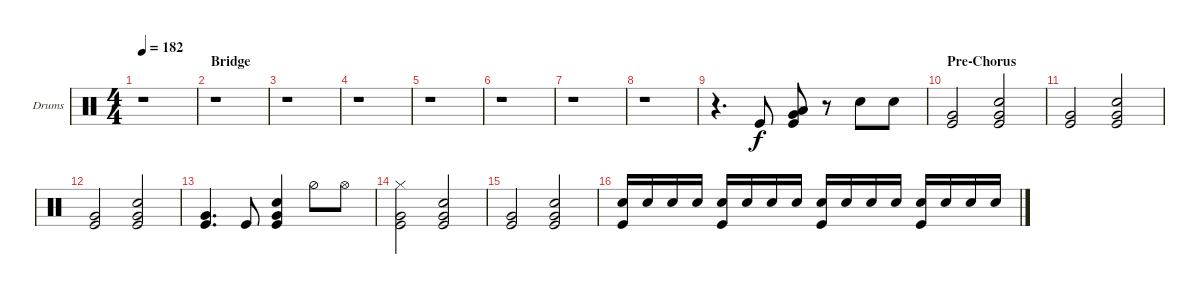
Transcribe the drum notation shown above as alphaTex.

\defaultSystemsLayout 4
\bracketExtendMode groupsimilarinstruments
\firstSystemTrackNameOrientation horizontal
\otherSystemsTrackNameOrientation horizontal
\track ("Drumkit" "Drums") {instrument percussion}
\staff {score}
\articulation defaults
\ts (4 4)
\tempo 182
\clef neutral
\ks c
r.1{dy f} |
\section ("" "Bridge")
r.1 |
r.1 |
r.1 |
r.1 |
r.1 |
r.1 |
r.1 |
r.4{d} "Kick (hit)".8 ("Low Tom (hit)" "Very Low Tom (hit)" "Kick (hit)").8 r.8 "Snare (hit) 2".8 "Snare (hit) 2".8 |
\section ("" "Pre-Chorus")
("Kick (hit)" "Very Low Tom (hit)").2 ("Snare (hit) 2" "Very Low Tom (hit)" "Kick (hit)").2 |
("Kick (hit)" "Very Low Tom (hit)").2 ("Snare (hit) 2" "Very Low Tom (hit)" "Kick (hit)").2 |
("Kick (hit)" "Very Low Tom (hit)").2 ("Snare (hit) 2" "Very Low Tom (hit)" "Kick (hit)").2 |
("Kick (hit)" "Very Low Tom (hit)").4{d} "Kick (hit)".8 ("Snare (hit) 2" "Very Low Tom (hit)" "Kick (hit)").4 "Hi-Hat (half)".8 "Hi-Hat (open)".8 |
("Kick (hit)" "Very Low Tom (hit)" "Hi-Hat (closed)").2 ("Snare (hit) 2" "Very Low Tom (hit)" "Kick (hit)").2 |
("Kick (hit)" "Very Low Tom (hit)").2 ("Snare (hit) 2" "Kick (hit)" "Very Low Tom (hit)").2 |
("Snare (hit) 2" "Kick (hit)").16 "Snare (hit) 2".16 "Snare (hit) 2".16 "Snare (hit) 2".16 ("Snare (hit) 2" "Kick (hit)").16 "Snare (hit) 2".16 "Snare (hit) 2".16 "Snare (hit) 2".16 ("Snare (hit) 2" "Kick (hit)").16 "Snare (hit) 2".16 "Snare (hit) 2".16 "Snare (hit) 2".16 ("Snare (hit) 2" "Kick (hit)").16 "Snare (hit) 2".16 "Snare (hit) 2".16 "Snare (hit) 2".16
